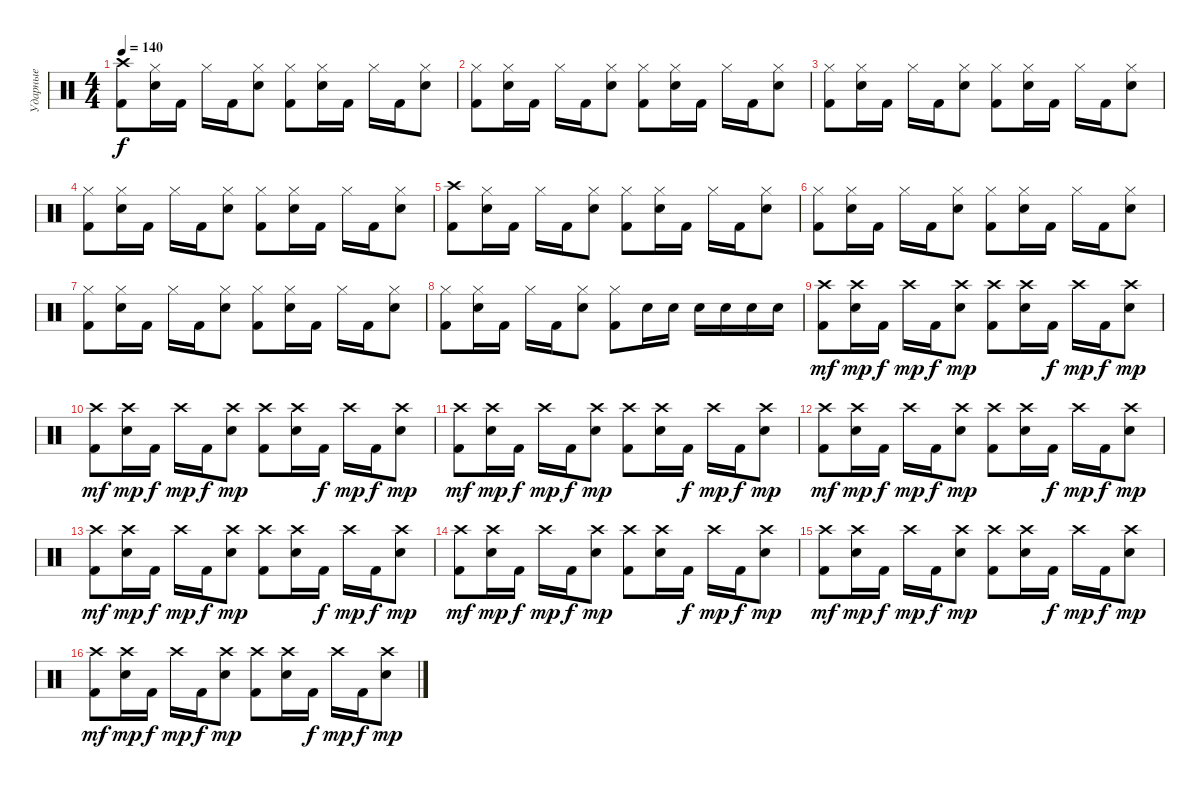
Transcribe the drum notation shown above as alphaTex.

\track ("Ударные" "Ударные") {instrument percussion}
\staff {score}
\articulation defaults
\ts (4 4)
\tempo 140
\clef neutral
\ks c
("Crash high (hit)" "Kick (hit) 2").8{dy f} ("Hi-Hat (closed)" "Electric Snare (hit)").16 "Kick (hit) 2".16 "Hi-Hat (closed)".16 "Kick (hit) 2".16 ("Hi-Hat (closed)" "Electric Snare (hit)").8 ("Hi-Hat (closed)" "Kick (hit) 2").8 ("Hi-Hat (closed)" "Electric Snare (hit)").16 "Kick (hit) 2".16 "Hi-Hat (closed)".16 "Kick (hit) 2".16 ("Hi-Hat (closed)" "Electric Snare (hit)").8 |
("Hi-Hat (closed)" "Kick (hit) 2").8 ("Hi-Hat (closed)" "Electric Snare (hit)").16 "Kick (hit) 2".16 "Hi-Hat (closed)".16 "Kick (hit) 2".16 ("Hi-Hat (closed)" "Electric Snare (hit)").8 ("Hi-Hat (closed)" "Kick (hit) 2").8 ("Hi-Hat (closed)" "Electric Snare (hit)").16 "Kick (hit) 2".16 "Hi-Hat (closed)".16 "Kick (hit) 2".16 ("Hi-Hat (closed)" "Electric Snare (hit)").8 |
("Hi-Hat (closed)" "Kick (hit) 2").8 ("Hi-Hat (closed)" "Electric Snare (hit)").16 "Kick (hit) 2".16 "Hi-Hat (closed)".16 "Kick (hit) 2".16 ("Hi-Hat (closed)" "Electric Snare (hit)").8 ("Hi-Hat (closed)" "Kick (hit) 2").8 ("Hi-Hat (closed)" "Electric Snare (hit)").16 "Kick (hit) 2".16 "Hi-Hat (closed)".16 "Kick (hit) 2".16 ("Hi-Hat (closed)" "Electric Snare (hit)").8 |
("Hi-Hat (closed)" "Kick (hit) 2").8 ("Hi-Hat (closed)" "Electric Snare (hit)").16 "Kick (hit) 2".16 "Hi-Hat (closed)".16 "Kick (hit) 2".16 ("Hi-Hat (closed)" "Electric Snare (hit)").8 ("Hi-Hat (closed)" "Kick (hit) 2").8 ("Hi-Hat (closed)" "Electric Snare (hit)").16 "Kick (hit) 2".16 "Hi-Hat (closed)".16 "Kick (hit) 2".16 ("Hi-Hat (closed)" "Electric Snare (hit)").8 |
("Crash high (hit)" "Kick (hit) 2").8 ("Hi-Hat (closed)" "Electric Snare (hit)").16 "Kick (hit) 2".16 "Hi-Hat (closed)".16 "Kick (hit) 2".16 ("Hi-Hat (closed)" "Electric Snare (hit)").8 ("Hi-Hat (closed)" "Kick (hit) 2").8 ("Hi-Hat (closed)" "Electric Snare (hit)").16 "Kick (hit) 2".16 "Hi-Hat (closed)".16 "Kick (hit) 2".16 ("Hi-Hat (closed)" "Electric Snare (hit)").8 |
("Hi-Hat (closed)" "Kick (hit) 2").8 ("Hi-Hat (closed)" "Electric Snare (hit)").16 "Kick (hit) 2".16 "Hi-Hat (closed)".16 "Kick (hit) 2".16 ("Hi-Hat (closed)" "Electric Snare (hit)").8 ("Hi-Hat (closed)" "Kick (hit) 2").8 ("Hi-Hat (closed)" "Electric Snare (hit)").16 "Kick (hit) 2".16 "Hi-Hat (closed)".16 "Kick (hit) 2".16 ("Hi-Hat (closed)" "Electric Snare (hit)").8 |
("Hi-Hat (closed)" "Kick (hit) 2").8 ("Hi-Hat (closed)" "Electric Snare (hit)").16 "Kick (hit) 2".16 "Hi-Hat (closed)".16 "Kick (hit) 2".16 ("Hi-Hat (closed)" "Electric Snare (hit)").8 ("Hi-Hat (closed)" "Kick (hit) 2").8 ("Hi-Hat (closed)" "Electric Snare (hit)").16 "Kick (hit) 2".16 "Hi-Hat (closed)".16 "Kick (hit) 2".16 ("Hi-Hat (closed)" "Electric Snare (hit)").8 |
("Hi-Hat (closed)" "Kick (hit) 2").8 ("Hi-Hat (closed)" "Electric Snare (hit)").16 "Kick (hit) 2".16 "Hi-Hat (closed)".16 "Kick (hit) 2".16 ("Hi-Hat (closed)" "Electric Snare (hit)").8 ("Hi-Hat (closed)" "Kick (hit) 2").8 "Electric Snare (hit)".16 "Electric Snare (hit)".16 "Electric Snare (hit)".16 "Electric Snare (hit)".16 "Electric Snare (hit)".16 "Electric Snare (hit)".16 |
("Crash high (hit)" "Kick (hit) 2").8{dy mf} ("Crash high (hit)" "Electric Snare (hit)").16{dy mp} "Kick (hit) 2".16{dy f} "Crash high (hit)".16{dy mp} "Kick (hit) 2".16{dy f} ("Crash high (hit)" "Electric Snare (hit)").8{dy mp} ("Crash high (hit)" "Kick (hit) 2").8 ("Crash high (hit)" "Electric Snare (hit)").16 "Kick (hit) 2".16{dy f} "Crash high (hit)".16{dy mp} "Kick (hit) 2".16{dy f} ("Crash high (hit)" "Electric Snare (hit)").8{dy mp} |
("Crash high (hit)" "Kick (hit) 2").8{dy mf} ("Crash high (hit)" "Electric Snare (hit)").16{dy mp} "Kick (hit) 2".16{dy f} "Crash high (hit)".16{dy mp} "Kick (hit) 2".16{dy f} ("Crash high (hit)" "Electric Snare (hit)").8{dy mp} ("Crash high (hit)" "Kick (hit) 2").8 ("Crash high (hit)" "Electric Snare (hit)").16 "Kick (hit) 2".16{dy f} "Crash high (hit)".16{dy mp} "Kick (hit) 2".16{dy f} ("Crash high (hit)" "Electric Snare (hit)").8{dy mp} |
("Crash high (hit)" "Kick (hit) 2").8{dy mf} ("Crash high (hit)" "Electric Snare (hit)").16{dy mp} "Kick (hit) 2".16{dy f} "Crash high (hit)".16{dy mp} "Kick (hit) 2".16{dy f} ("Crash high (hit)" "Electric Snare (hit)").8{dy mp} ("Crash high (hit)" "Kick (hit) 2").8 ("Crash high (hit)" "Electric Snare (hit)").16 "Kick (hit) 2".16{dy f} "Crash high (hit)".16{dy mp} "Kick (hit) 2".16{dy f} ("Crash high (hit)" "Electric Snare (hit)").8{dy mp} |
("Crash high (hit)" "Kick (hit) 2").8{dy mf} ("Crash high (hit)" "Electric Snare (hit)").16{dy mp} "Kick (hit) 2".16{dy f} "Crash high (hit)".16{dy mp} "Kick (hit) 2".16{dy f} ("Crash high (hit)" "Electric Snare (hit)").8{dy mp} ("Crash high (hit)" "Kick (hit) 2").8 ("Crash high (hit)" "Electric Snare (hit)").16 "Kick (hit) 2".16{dy f} "Crash high (hit)".16{dy mp} "Kick (hit) 2".16{dy f} ("Crash high (hit)" "Electric Snare (hit)").8{dy mp} |
("Crash high (hit)" "Kick (hit) 2").8{dy mf} ("Crash high (hit)" "Electric Snare (hit)").16{dy mp} "Kick (hit) 2".16{dy f} "Crash high (hit)".16{dy mp} "Kick (hit) 2".16{dy f} ("Crash high (hit)" "Electric Snare (hit)").8{dy mp} ("Crash high (hit)" "Kick (hit) 2").8 ("Crash high (hit)" "Electric Snare (hit)").16 "Kick (hit) 2".16{dy f} "Crash high (hit)".16{dy mp} "Kick (hit) 2".16{dy f} ("Crash high (hit)" "Electric Snare (hit)").8{dy mp} |
("Crash high (hit)" "Kick (hit) 2").8{dy mf} ("Crash high (hit)" "Electric Snare (hit)").16{dy mp} "Kick (hit) 2".16{dy f} "Crash high (hit)".16{dy mp} "Kick (hit) 2".16{dy f} ("Crash high (hit)" "Electric Snare (hit)").8{dy mp} ("Crash high (hit)" "Kick (hit) 2").8 ("Crash high (hit)" "Electric Snare (hit)").16 "Kick (hit) 2".16{dy f} "Crash high (hit)".16{dy mp} "Kick (hit) 2".16{dy f} ("Crash high (hit)" "Electric Snare (hit)").8{dy mp} |
("Crash high (hit)" "Kick (hit) 2").8{dy mf} ("Crash high (hit)" "Electric Snare (hit)").16{dy mp} "Kick (hit) 2".16{dy f} "Crash high (hit)".16{dy mp} "Kick (hit) 2".16{dy f} ("Crash high (hit)" "Electric Snare (hit)").8{dy mp} ("Crash high (hit)" "Kick (hit) 2").8 ("Crash high (hit)" "Electric Snare (hit)").16 "Kick (hit) 2".16{dy f} "Crash high (hit)".16{dy mp} "Kick (hit) 2".16{dy f} ("Crash high (hit)" "Electric Snare (hit)").8{dy mp} |
("Crash high (hit)" "Kick (hit) 2").8{dy mf} ("Crash high (hit)" "Electric Snare (hit)").16{dy mp} "Kick (hit) 2".16{dy f} "Crash high (hit)".16{dy mp} "Kick (hit) 2".16{dy f} ("Crash high (hit)" "Electric Snare (hit)").8{dy mp} ("Crash high (hit)" "Kick (hit) 2").8 ("Crash high (hit)" "Electric Snare (hit)").16 "Kick (hit) 2".16{dy f} "Crash high (hit)".16{dy mp} "Kick (hit) 2".16{dy f} ("Crash high (hit)" "Electric Snare (hit)").8{dy mp}
